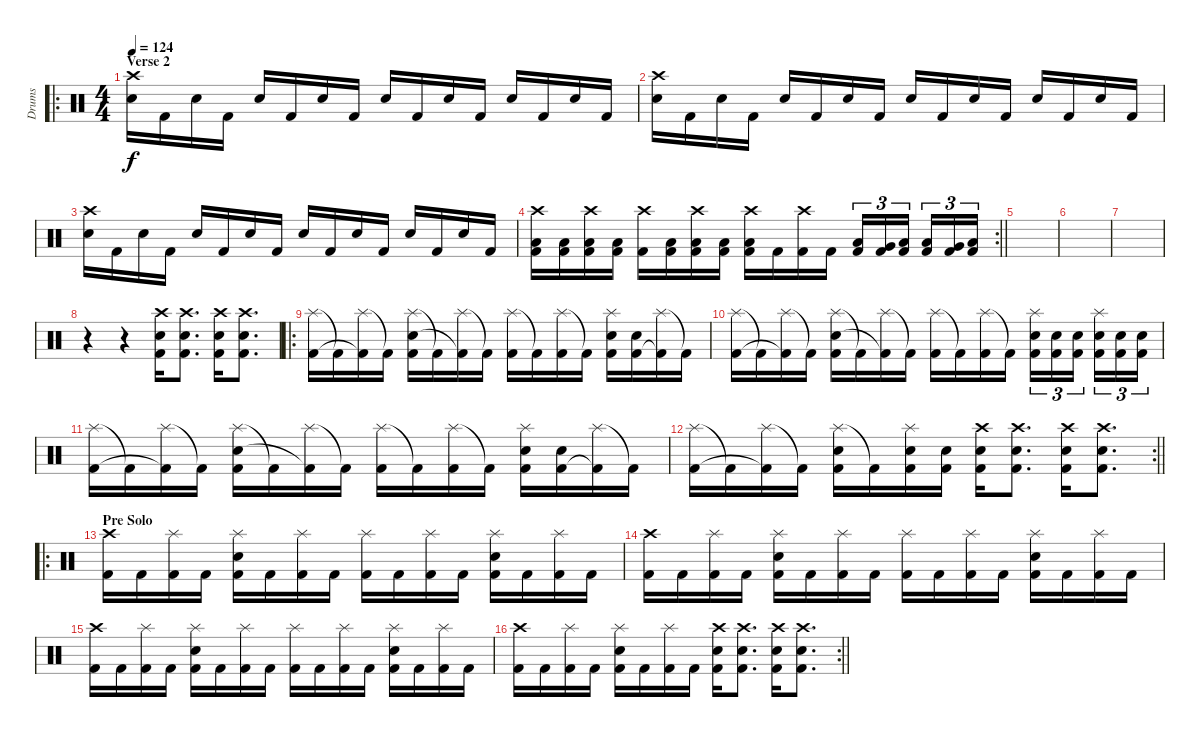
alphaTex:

\track ("Drums" "Drums") {instrument percussion}
\staff {score}
\articulation defaults
\ro
\ts (4 4)
\section ("" "Verse 2")
\tempo 124
\clef neutral
\ks c
("Crash high (hit)" "Electric Snare (hit)").16{dy f} "Kick (hit) 2".16 "Electric Snare (hit)".16 "Kick (hit) 2".16 "Electric Snare (hit)".16 "Kick (hit) 2".16 "Electric Snare (hit)".16 "Kick (hit) 2".16 "Electric Snare (hit)".16 "Kick (hit) 2".16 "Electric Snare (hit)".16 "Kick (hit) 2".16 "Electric Snare (hit)".16 "Kick (hit) 2".16 "Electric Snare (hit)".16 "Kick (hit) 2".16 |
("Crash high (hit)" "Electric Snare (hit)").16 "Kick (hit) 2".16 "Electric Snare (hit)".16 "Kick (hit) 2".16 "Electric Snare (hit)".16 "Kick (hit) 2".16 "Electric Snare (hit)".16 "Kick (hit) 2".16 "Electric Snare (hit)".16 "Kick (hit) 2".16 "Electric Snare (hit)".16 "Kick (hit) 2".16 "Electric Snare (hit)".16 "Kick (hit) 2".16 "Electric Snare (hit)".16 "Kick (hit) 2".16 |
("Crash high (hit)" "Electric Snare (hit)").16 "Kick (hit) 2".16 "Electric Snare (hit)".16 "Kick (hit) 2".16 "Electric Snare (hit)".16 "Kick (hit) 2".16 "Electric Snare (hit)".16 "Kick (hit) 2".16 "Electric Snare (hit)".16 "Kick (hit) 2".16 "Electric Snare (hit)".16 "Kick (hit) 2".16 "Electric Snare (hit)".16 "Kick (hit) 2".16 "Electric Snare (hit)".16 "Kick (hit) 2".16 |
\rc 2
\barLineRight lightlight
("Crash high (hit)" "Low Floor Tom (hit)" "Kick (hit) 2").16 ("Low Floor Tom (hit)" "Kick (hit) 2").16 ("Crash high (hit)" "Low Floor Tom (hit)" "Kick (hit) 2").16 ("Low Floor Tom (hit)" "Kick (hit) 2").16 ("Crash high (hit)" "Kick (hit) 2").16 ("Low Floor Tom (hit)" "Kick (hit) 2").16 ("Crash high (hit)" "Low Floor Tom (hit)" "Kick (hit) 2").16 ("Low Floor Tom (hit)" "Kick (hit) 2").16 ("Crash high (hit)" "Low Floor Tom (hit)" "Kick (hit) 2").16 "Kick (hit) 2".16 ("Crash high (hit)" "Kick (hit) 2").16 "Kick (hit) 2".16 ("Low Tom (hit)" "Kick (hit) 2").16{tu (3 2)} ("Very Low Tom (hit)" "Kick (hit) 2").16{tu (3 2)} ("Low Floor Tom (hit)" "Kick (hit) 2").16{tu (3 2) beam splitsecondary} ("Low Tom (hit)" "Kick (hit) 2").16{tu (3 2)} ("Very Low Tom (hit)" "Kick (hit) 2").16{tu (3 2)} ("Low Floor Tom (hit)" "Kick (hit) 2").16{tu (3 2)} |
|
|
|
r.4 r.4 ("Crash high (hit)" "Electric Snare (hit)" "Kick (hit) 2").16 ("Crash high (hit)" "Electric Snare (hit)" "Kick (hit) 2").8{d} ("Crash high (hit)" "Electric Snare (hit)" "Kick (hit) 2").16 ("Crash high (hit)" "Electric Snare (hit)" "Kick (hit) 2").8{d} |
\ro
("Splash (hit)" "Kick (hit) 2").16 "Kick (hit) 2"{t}.16 ("Splash (hit)" "Kick (hit) 2"{t}).16 "Kick (hit) 2"{t}.16 ("Splash (hit)" "Electric Snare (hit)" "Kick (hit) 2").16 "Kick (hit) 2"{t}.16 ("Splash (hit)" "Kick (hit) 2"{t}).16 "Kick (hit) 2"{t}.16 ("Splash (hit)" "Kick (hit) 2").16 "Kick (hit) 2"{t}.16 ("Splash (hit)" "Kick (hit) 2").16 "Kick (hit) 2"{t}.16 ("Splash (hit)" "Electric Snare (hit)" "Kick (hit) 2").16 ("Electric Snare (hit)" "Kick (hit) 2").16 ("Splash (hit)" "Kick (hit) 2"{t}).16 "Kick (hit) 2"{t}.16 |
("Splash (hit)" "Kick (hit) 2").16 "Kick (hit) 2"{t}.16 ("Splash (hit)" "Kick (hit) 2"{t}).16 "Kick (hit) 2"{t}.16 ("Splash (hit)" "Electric Snare (hit)" "Kick (hit) 2").16 "Kick (hit) 2"{t}.16 ("Splash (hit)" "Kick (hit) 2"{t}).16 "Kick (hit) 2"{t}.16 ("Splash (hit)" "Kick (hit) 2").16 "Kick (hit) 2"{t}.16 ("Splash (hit)" "Kick (hit) 2").16 "Kick (hit) 2"{t}.16 ("Splash (hit)" "Electric Snare (hit)" "Kick (hit) 2").16{tu (3 2)} ("Electric Snare (hit)" "Kick (hit) 2").16{tu (3 2)} ("Electric Snare (hit)" "Kick (hit) 2").16{tu (3 2) beam splitsecondary} ("Splash (hit)" "Electric Snare (hit)" "Kick (hit) 2").16{tu (3 2)} ("Electric Snare (hit)" "Kick (hit) 2").16{tu (3 2)} ("Electric Snare (hit)" "Kick (hit) 2").16{tu (3 2)} |
("Splash (hit)" "Kick (hit) 2").16 "Kick (hit) 2"{t}.16 ("Splash (hit)" "Kick (hit) 2"{t}).16 "Kick (hit) 2"{t}.16 ("Splash (hit)" "Electric Snare (hit)" "Kick (hit) 2").16 "Kick (hit) 2"{t}.16 ("Splash (hit)" "Kick (hit) 2"{t}).16 "Kick (hit) 2"{t}.16 ("Splash (hit)" "Kick (hit) 2").16 "Kick (hit) 2"{t}.16 ("Splash (hit)" "Kick (hit) 2").16 "Kick (hit) 2"{t}.16 ("Splash (hit)" "Electric Snare (hit)" "Kick (hit) 2").16 ("Electric Snare (hit)" "Kick (hit) 2").16 ("Splash (hit)" "Kick (hit) 2"{t}).16 "Kick (hit) 2"{t}.16 |
\rc 2
\barLineRight lightlight
("Splash (hit)" "Kick (hit) 2").16 "Kick (hit) 2"{t}.16 ("Splash (hit)" "Kick (hit) 2"{t}).16 "Kick (hit) 2"{t}.16 ("Splash (hit)" "Electric Snare (hit)" "Kick (hit) 2").16 "Kick (hit) 2"{t}.16 ("Splash (hit)" "Electric Snare (hit)" "Kick (hit) 2").16 ("Electric Snare (hit)" "Kick (hit) 2").16 ("Crash high (hit)" "Electric Snare (hit)" "Kick (hit) 2").16 ("Crash high (hit)" "Electric Snare (hit)" "Kick (hit) 2").8{d} ("Crash high (hit)" "Electric Snare (hit)" "Kick (hit) 2").16 ("Crash high (hit)" "Electric Snare (hit)" "Kick (hit) 2").8{d} |
\ro
\section ("" "Pre Solo")
("Crash high (hit)" "Kick (hit) 2").16 "Kick (hit) 2".16 ("Splash (hit)" "Kick (hit) 2").16 "Kick (hit) 2".16 ("Splash (hit)" "Electric Snare (hit)" "Kick (hit) 2").16 "Kick (hit) 2".16 ("Splash (hit)" "Kick (hit) 2").16 "Kick (hit) 2".16 ("Splash (hit)" "Kick (hit) 2").16 "Kick (hit) 2".16 ("Splash (hit)" "Kick (hit) 2").16 "Kick (hit) 2".16 ("Splash (hit)" "Electric Snare (hit)" "Kick (hit) 2").16 "Kick (hit) 2".16 ("Splash (hit)" "Kick (hit) 2").16 "Kick (hit) 2".16 |
("Crash high (hit)" "Kick (hit) 2").16 "Kick (hit) 2".16 ("Splash (hit)" "Kick (hit) 2").16 "Kick (hit) 2".16 ("Splash (hit)" "Electric Snare (hit)" "Kick (hit) 2").16 "Kick (hit) 2".16 ("Splash (hit)" "Kick (hit) 2").16 "Kick (hit) 2".16 ("Splash (hit)" "Kick (hit) 2").16 "Kick (hit) 2".16 ("Splash (hit)" "Kick (hit) 2").16 "Kick (hit) 2".16 ("Splash (hit)" "Electric Snare (hit)" "Kick (hit) 2").16 "Kick (hit) 2".16 ("Splash (hit)" "Kick (hit) 2").16 "Kick (hit) 2".16 |
("Crash high (hit)" "Kick (hit) 2").16 "Kick (hit) 2".16 ("Splash (hit)" "Kick (hit) 2").16 "Kick (hit) 2".16 ("Splash (hit)" "Electric Snare (hit)" "Kick (hit) 2").16 "Kick (hit) 2".16 ("Splash (hit)" "Kick (hit) 2").16 "Kick (hit) 2".16 ("Splash (hit)" "Kick (hit) 2").16 "Kick (hit) 2".16 ("Splash (hit)" "Kick (hit) 2").16 "Kick (hit) 2".16 ("Splash (hit)" "Electric Snare (hit)" "Kick (hit) 2").16 "Kick (hit) 2".16 ("Splash (hit)" "Kick (hit) 2").16 "Kick (hit) 2".16 |
\rc 2
\barLineRight lightlight
("Crash high (hit)" "Kick (hit) 2").16 "Kick (hit) 2".16 ("Splash (hit)" "Kick (hit) 2").16 "Kick (hit) 2".16 ("Splash (hit)" "Electric Snare (hit)" "Kick (hit) 2").16 "Kick (hit) 2".16 ("Splash (hit)" "Kick (hit) 2").16 "Kick (hit) 2".16 ("Crash high (hit)" "Electric Snare (hit)" "Kick (hit) 2").16 ("Crash high (hit)" "Electric Snare (hit)" "Kick (hit) 2").8{d} ("Crash high (hit)" "Electric Snare (hit)" "Kick (hit) 2").16 ("Crash high (hit)" "Electric Snare (hit)" "Kick (hit) 2").8{d}
